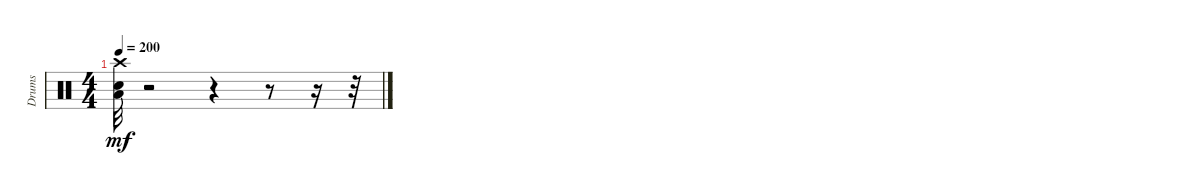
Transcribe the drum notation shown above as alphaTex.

\track ("Drums" "Drums") {instrument percussion}
\staff {score}
\articulation defaults
\ts (4 4)
\tempo 200
\clef neutral
\ks c
("Snare (hit) 2" "Low Floor Tom (hit)" "Crash high (hit)").32{dy mf} r.2 r.4 r.8 r.16 r.32
